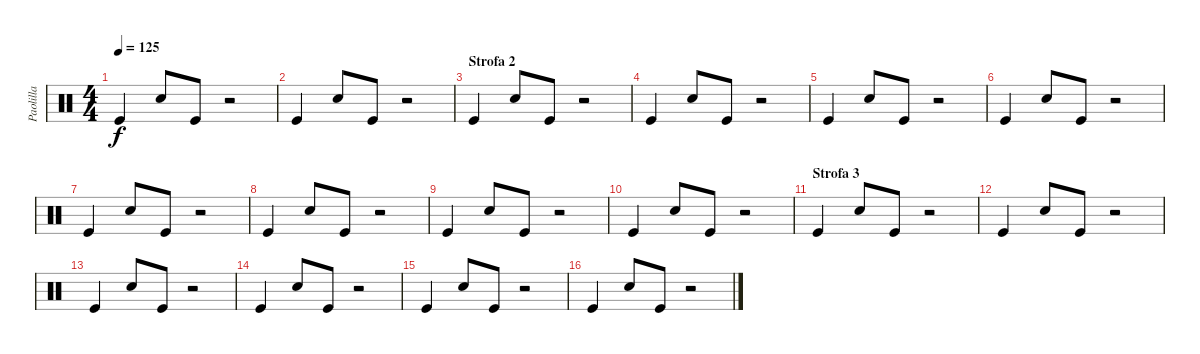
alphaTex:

\track ("Paolilla" "Paolilla") {instrument percussion}
\staff {score}
\articulation defaults
\ts (4 4)
\tempo 125
\clef neutral
\ks c "Kick (hit)".4{dy f} "Snare (hit) 2".8 "Kick (hit)".8
r.2 |
"Kick (hit)".4 "Snare (hit) 2".8 "Kick (hit)".8 r.2 |
\section ("" "Strofa 2")
"Kick (hit)".4 "Snare (hit) 2".8 "Kick (hit)".8 r.2 |
"Kick (hit)".4 "Snare (hit) 2".8 "Kick (hit)".8 r.2 |
"Kick (hit)".4 "Snare (hit) 2".8 "Kick (hit)".8 r.2 |
"Kick (hit)".4 "Snare (hit) 2".8 "Kick (hit)".8 r.2 |
"Kick (hit)".4 "Snare (hit) 2".8 "Kick (hit)".8 r.2 |
"Kick (hit)".4 "Snare (hit) 2".8 "Kick (hit)".8 r.2 |
"Kick (hit)".4 "Snare (hit) 2".8 "Kick (hit)".8 r.2 |
"Kick (hit)".4 "Snare (hit) 2".8 "Kick (hit)".8 r.2 |
\section ("" "Strofa 3")
"Kick (hit)".4 "Snare (hit) 2".8 "Kick (hit)".8 r.2 |
"Kick (hit)".4 "Snare (hit) 2".8 "Kick (hit)".8 r.2 |
"Kick (hit)".4 "Snare (hit) 2".8 "Kick (hit)".8 r.2 |
"Kick (hit)".4 "Snare (hit) 2".8 "Kick (hit)".8 r.2 |
"Kick (hit)".4 "Snare (hit) 2".8 "Kick (hit)".8 r.2 |
"Kick (hit)".4 "Snare (hit) 2".8 "Kick (hit)".8 r.2
